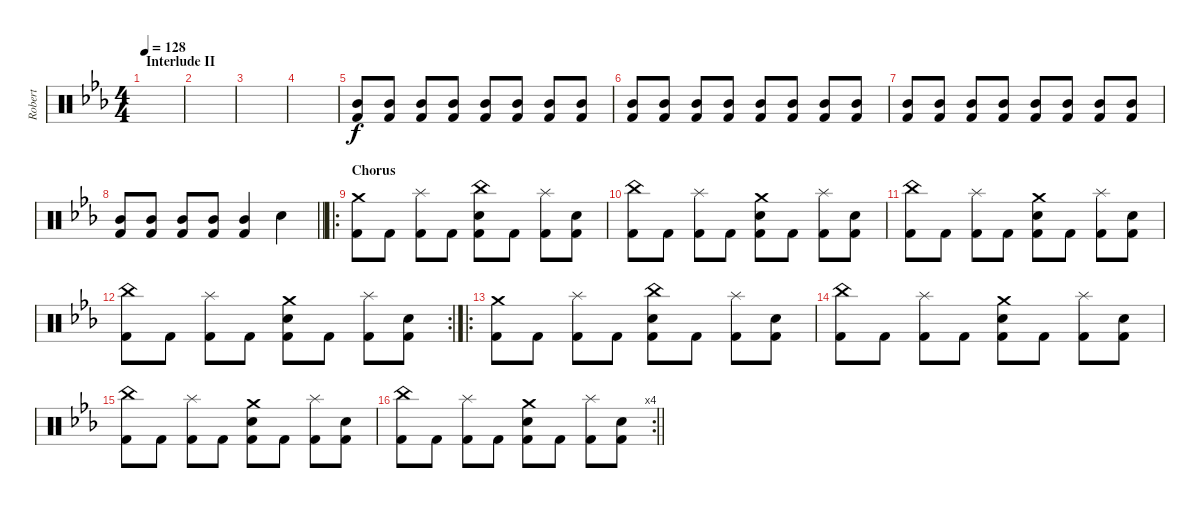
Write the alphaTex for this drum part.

\track ("Robert" "Robert") {instrument percussion}
\staff {score}
\articulation defaults
\ts (4 4)
\section ("" "Interlude II")
\tempo 128
\clef neutral
\ks cminor
|
|
|
|
("Mid Tom (hit)" "Kick (hit) 2").8{volume 13} ("Mid Tom (hit)" "Kick (hit) 2").8 ("Mid Tom (hit)" "Kick (hit) 2").8 ("Mid Tom (hit)" "Kick (hit) 2").8 ("Mid Tom (hit)" "Kick (hit) 2").8 ("Mid Tom (hit)" "Kick (hit) 2").8 ("Mid Tom (hit)" "Kick (hit) 2").8 ("Mid Tom (hit)" "Kick (hit) 2").8 |
("Mid Tom (hit)" "Kick (hit) 2").8 ("Mid Tom (hit)" "Kick (hit) 2").8 ("Mid Tom (hit)" "Kick (hit) 2").8 ("Mid Tom (hit)" "Kick (hit) 2").8 ("Mid Tom (hit)" "Kick (hit) 2").8 ("Mid Tom (hit)" "Kick (hit) 2").8 ("Mid Tom (hit)" "Kick (hit) 2").8 ("Mid Tom (hit)" "Kick (hit) 2").8 |
("Mid Tom (hit)" "Kick (hit) 2").8 ("Mid Tom (hit)" "Kick (hit) 2").8 ("Mid Tom (hit)" "Kick (hit) 2").8 ("Mid Tom (hit)" "Kick (hit) 2").8 ("Mid Tom (hit)" "Kick (hit) 2").8 ("Mid Tom (hit)" "Kick (hit) 2").8 ("Mid Tom (hit)" "Kick (hit) 2").8 ("Mid Tom (hit)" "Kick (hit) 2").8 |
\barLineRight lightlight
("Mid Tom (hit)" "Kick (hit) 2").8 ("Mid Tom (hit)" "Kick (hit) 2").8 ("Mid Tom (hit)" "Kick (hit) 2").8 ("Mid Tom (hit)" "Kick (hit) 2").8 ("Mid Tom (hit)" "Kick (hit) 2").4 "Snare (hit) 2".4 |
\ro
\section ("" "Chorus")
("Crash medium (hit)" "Kick (hit) 2").8 "Kick (hit) 2".8 ("Splash (hit)" "Kick (hit) 2").8 "Kick (hit) 2".8 ("China (hit)" "Snare (hit) 2" "Kick (hit) 2").8 "Kick (hit) 2".8 ("Splash (hit)" "Kick (hit) 2").8 ("Snare (hit) 2" "Kick (hit) 2").8 |
("China (hit)" "Kick (hit) 2").8 "Kick (hit) 2".8 ("Splash (hit)" "Kick (hit) 2").8 "Kick (hit) 2".8 ("Crash medium (hit)" "Snare (hit) 2" "Kick (hit) 2").8 "Kick (hit) 2".8 ("Splash (hit)" "Kick (hit) 2").8 ("Snare (hit) 2" "Kick (hit) 2").8 |
("China (hit)" "Kick (hit) 2").8 "Kick (hit) 2".8 ("Splash (hit)" "Kick (hit) 2").8 "Kick (hit) 2".8 ("Crash medium (hit)" "Snare (hit) 2" "Kick (hit) 2").8 "Kick (hit) 2".8 ("Splash (hit)" "Kick (hit) 2").8 ("Snare (hit) 2" "Kick (hit) 2").8 |
\rc 2
("China (hit)" "Kick (hit) 2").8 "Kick (hit) 2".8 ("Splash (hit)" "Kick (hit) 2").8 "Kick (hit) 2".8 ("Crash medium (hit)" "Snare (hit) 2" "Kick (hit) 2").8 "Kick (hit) 2".8 ("Splash (hit)" "Kick (hit) 2").8 ("Snare (hit) 2" "Kick (hit) 2").8 |
\ro
("Crash medium (hit)" "Kick (hit) 2").8 "Kick (hit) 2".8 ("Splash (hit)" "Kick (hit) 2").8 "Kick (hit) 2".8 ("China (hit)" "Snare (hit) 2" "Kick (hit) 2").8 "Kick (hit) 2".8 ("Splash (hit)" "Kick (hit) 2").8 ("Snare (hit) 2" "Kick (hit) 2").8 |
("China (hit)" "Kick (hit) 2").8 "Kick (hit) 2".8 ("Splash (hit)" "Kick (hit) 2").8 "Kick (hit) 2".8 ("Crash medium (hit)" "Snare (hit) 2" "Kick (hit) 2").8 "Kick (hit) 2".8 ("Splash (hit)" "Kick (hit) 2").8 ("Snare (hit) 2" "Kick (hit) 2").8 |
("China (hit)" "Kick (hit) 2").8 "Kick (hit) 2".8 ("Splash (hit)" "Kick (hit) 2").8 "Kick (hit) 2".8 ("Crash medium (hit)" "Snare (hit) 2" "Kick (hit) 2").8 "Kick (hit) 2".8 ("Splash (hit)" "Kick (hit) 2").8 ("Snare (hit) 2" "Kick (hit) 2").8 |
\rc 4
\barLineRight lightlight
("China (hit)" "Kick (hit) 2").8 "Kick (hit) 2".8 ("Splash (hit)" "Kick (hit) 2").8 "Kick (hit) 2".8 ("Crash medium (hit)" "Snare (hit) 2" "Kick (hit) 2").8 "Kick (hit) 2".8 ("Splash (hit)" "Kick (hit) 2").8 ("Snare (hit) 2" "Kick (hit) 2").8
